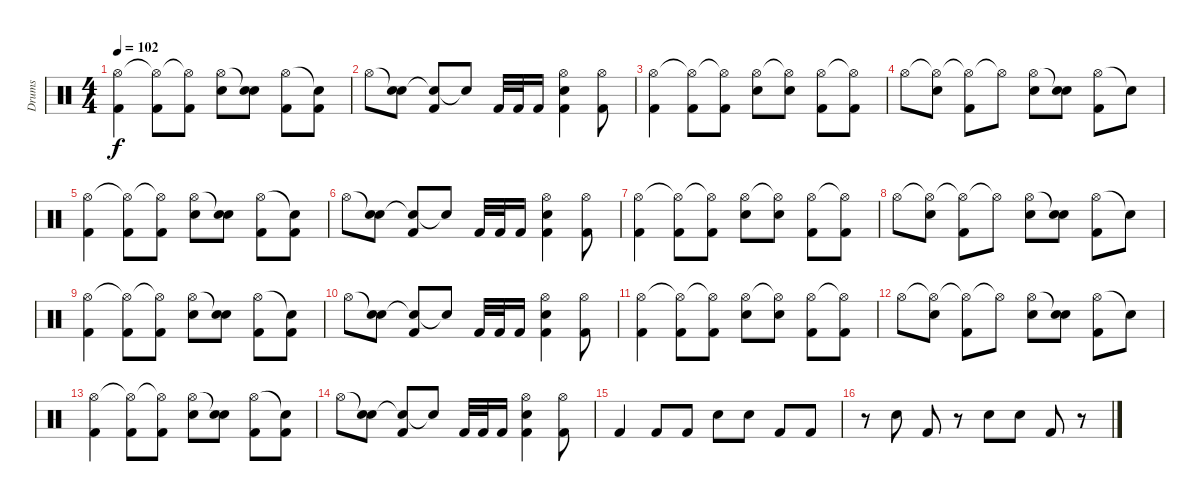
\track ("Drums" "Drums") {instrument percussion}
\staff {score}
\articulation defaults
\ts (4 4)
\tempo 102
\clef neutral
\ks c
("Hi-Hat (open)" "Kick (hit) 2").4{dy f} ("Hi-Hat (open)"{t} "Kick (hit) 2").8 ("Hi-Hat (open)"{t} "Kick (hit) 2").8 ("Hi-Hat (open)" "Snare (hit) 2").8 ("Snare (hit)"{t} "Snare (hit) 2").8 ("Hi-Hat (open)" "Kick (hit) 2").8 ("Snare (hit)"{t} "Kick (hit) 2").8 |
"Hi-Hat (open)".8 ("Snare (hit)"{t} "Snare (hit) 2").8 ("Snare (hit)"{t} "Kick (hit) 2").8 "Snare (hit)"{t}.8 "Kick (hit) 2".32 "Kick (hit) 2".32 "Kick (hit) 2".16 ("Hi-Hat (open)" "Snare (hit) 2" "Kick (hit) 2").4 ("Hi-Hat (open)" "Kick (hit) 2").8 |
("Hi-Hat (open)" "Kick (hit) 2").4 ("Hi-Hat (open)"{t} "Kick (hit) 2").8 ("Hi-Hat (open)"{t} "Kick (hit) 2").8 ("Hi-Hat (open)" "Snare (hit) 2").8 ("Hi-Hat (open)"{t} "Snare (hit) 2").8 ("Hi-Hat (open)" "Kick (hit) 2").8 ("Hi-Hat (open)"{t} "Kick (hit) 2").8 |
"Hi-Hat (open)".8 ("Hi-Hat (open)"{t} "Snare (hit) 2").8 ("Hi-Hat (open)"{t} "Kick (hit) 2").8 "Hi-Hat (open)"{t}.8 ("Hi-Hat (open)" "Snare (hit) 2").8 ("Snare (hit)"{t} "Snare (hit) 2").8 ("Hi-Hat (open)" "Kick (hit) 2").8 "Snare (hit)"{t}.8 |
("Hi-Hat (open)" "Kick (hit) 2").4 ("Hi-Hat (open)"{t} "Kick (hit) 2").8 ("Hi-Hat (open)"{t} "Kick (hit) 2").8 ("Hi-Hat (open)" "Snare (hit) 2").8 ("Snare (hit)"{t} "Snare (hit) 2").8 ("Hi-Hat (open)" "Kick (hit) 2").8 ("Snare (hit)"{t} "Kick (hit) 2").8 |
"Hi-Hat (open)".8 ("Snare (hit)"{t} "Snare (hit) 2").8 ("Snare (hit)"{t} "Kick (hit) 2").8 "Snare (hit)"{t}.8 "Kick (hit) 2".32 "Kick (hit) 2".32 "Kick (hit) 2".16 ("Hi-Hat (open)" "Snare (hit) 2" "Kick (hit) 2").4 ("Hi-Hat (open)" "Kick (hit) 2").8 |
("Hi-Hat (open)" "Kick (hit) 2").4 ("Hi-Hat (open)"{t} "Kick (hit) 2").8 ("Hi-Hat (open)"{t} "Kick (hit) 2").8 ("Hi-Hat (open)" "Snare (hit) 2").8 ("Hi-Hat (open)"{t} "Snare (hit) 2").8 ("Hi-Hat (open)" "Kick (hit) 2").8 ("Hi-Hat (open)"{t} "Kick (hit) 2").8 |
"Hi-Hat (open)".8 ("Hi-Hat (open)"{t} "Snare (hit) 2").8 ("Hi-Hat (open)"{t} "Kick (hit) 2").8 "Hi-Hat (open)"{t}.8 ("Hi-Hat (open)" "Snare (hit) 2").8 ("Snare (hit)"{t} "Snare (hit) 2").8 ("Hi-Hat (open)" "Kick (hit) 2").8 "Snare (hit)"{t}.8 |
("Hi-Hat (open)" "Kick (hit) 2").4 ("Hi-Hat (open)"{t} "Kick (hit) 2").8 ("Hi-Hat (open)"{t} "Kick (hit) 2").8 ("Hi-Hat (open)" "Snare (hit) 2").8 ("Snare (hit)"{t} "Snare (hit) 2").8 ("Hi-Hat (open)" "Kick (hit) 2").8 ("Snare (hit)"{t} "Kick (hit) 2").8 |
"Hi-Hat (open)".8 ("Snare (hit)"{t} "Snare (hit) 2").8 ("Snare (hit)"{t} "Kick (hit) 2").8 "Snare (hit)"{t}.8 "Kick (hit) 2".32 "Kick (hit) 2".32 "Kick (hit) 2".16 ("Hi-Hat (open)" "Snare (hit) 2" "Kick (hit) 2").4 ("Hi-Hat (open)" "Kick (hit) 2").8 |
("Hi-Hat (open)" "Kick (hit) 2").4 ("Hi-Hat (open)"{t} "Kick (hit) 2").8 ("Hi-Hat (open)"{t} "Kick (hit) 2").8 ("Hi-Hat (open)" "Snare (hit) 2").8 ("Hi-Hat (open)"{t} "Snare (hit) 2").8 ("Hi-Hat (open)" "Kick (hit) 2").8 ("Hi-Hat (open)"{t} "Kick (hit) 2").8 |
"Hi-Hat (open)".8 ("Hi-Hat (open)"{t} "Snare (hit) 2").8 ("Hi-Hat (open)"{t} "Kick (hit) 2").8 "Hi-Hat (open)"{t}.8 ("Hi-Hat (open)" "Snare (hit) 2").8 ("Snare (hit)"{t} "Snare (hit) 2").8 ("Hi-Hat (open)" "Kick (hit) 2").8 "Snare (hit)"{t}.8 |
("Hi-Hat (open)" "Kick (hit) 2").4 ("Hi-Hat (open)"{t} "Kick (hit) 2").8 ("Hi-Hat (open)"{t} "Kick (hit) 2").8 ("Hi-Hat (open)" "Snare (hit) 2").8 ("Snare (hit)"{t} "Snare (hit) 2").8 ("Hi-Hat (open)" "Kick (hit) 2").8 ("Snare (hit)"{t} "Kick (hit) 2").8 |
"Hi-Hat (open)".8 ("Snare (hit)"{t} "Snare (hit) 2").8 ("Snare (hit)"{t} "Kick (hit) 2").8 "Snare (hit)"{t}.8 "Kick (hit) 2".32 "Kick (hit) 2".32 "Kick (hit) 2".16 ("Hi-Hat (open)" "Snare (hit) 2" "Kick (hit) 2").4 ("Hi-Hat (open)" "Kick (hit) 2").8 |
"Kick (hit) 2".4 "Kick (hit) 2".8 "Kick (hit) 2".8 "Snare (hit) 2".8 "Snare (hit) 2".8 "Kick (hit) 2".8 "Kick (hit) 2".8 |
r.8 "Snare (hit) 2".8 "Kick (hit) 2".8 r.8 "Snare (hit) 2".8 "Snare (hit) 2".8 "Kick (hit) 2".8 r.8
